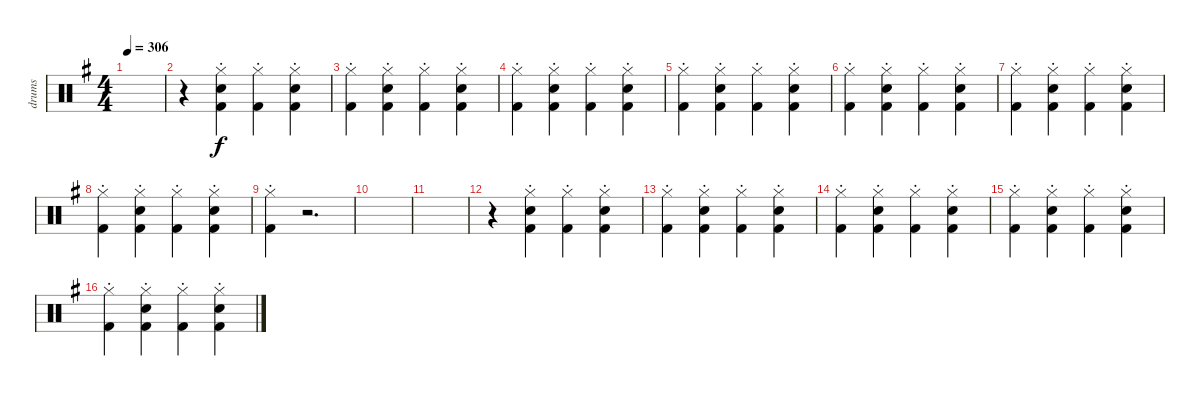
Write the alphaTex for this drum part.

\track ("drums" "drums") {instrument percussion}
\staff {score}
\articulation defaults
\ts (4 4)
\tempo 306
\clef neutral
\ks g
|
r.4 ("Hi-Hat (closed)"{st} "Electric Snare (hit)" "Kick (hit) 2").4 ("Hi-Hat (closed)"{st} "Kick (hit) 2").4 ("Hi-Hat (closed)"{st} "Electric Snare (hit)" "Kick (hit) 2").4 |
("Hi-Hat (closed)"{st} "Kick (hit) 2").4 ("Hi-Hat (closed)"{st} "Electric Snare (hit)" "Kick (hit) 2").4 ("Hi-Hat (closed)"{st} "Kick (hit) 2").4 ("Hi-Hat (closed)"{st} "Electric Snare (hit)" "Kick (hit) 2").4 |
("Hi-Hat (closed)"{st} "Kick (hit) 2").4 ("Hi-Hat (closed)"{st} "Electric Snare (hit)" "Kick (hit) 2").4 ("Hi-Hat (closed)"{st} "Kick (hit) 2").4 ("Hi-Hat (closed)"{st} "Electric Snare (hit)" "Kick (hit) 2").4 |
("Hi-Hat (closed)"{st} "Kick (hit) 2").4 ("Hi-Hat (closed)"{st} "Electric Snare (hit)" "Kick (hit) 2").4 ("Hi-Hat (closed)"{st} "Kick (hit) 2").4 ("Hi-Hat (closed)"{st} "Electric Snare (hit)" "Kick (hit) 2").4 |
("Hi-Hat (closed)"{st} "Kick (hit) 2").4 ("Hi-Hat (closed)"{st} "Electric Snare (hit)" "Kick (hit) 2").4 ("Hi-Hat (closed)"{st} "Kick (hit) 2").4 ("Hi-Hat (closed)"{st} "Electric Snare (hit)" "Kick (hit) 2").4 |
("Hi-Hat (closed)"{st} "Kick (hit) 2").4 ("Hi-Hat (closed)"{st} "Electric Snare (hit)" "Kick (hit) 2").4 ("Hi-Hat (closed)"{st} "Kick (hit) 2").4 ("Hi-Hat (closed)"{st} "Electric Snare (hit)" "Kick (hit) 2").4 |
("Hi-Hat (closed)"{st} "Kick (hit) 2").4 ("Hi-Hat (closed)"{st} "Electric Snare (hit)" "Kick (hit) 2").4 ("Hi-Hat (closed)"{st} "Kick (hit) 2").4 ("Hi-Hat (closed)"{st} "Electric Snare (hit)" "Kick (hit) 2").4 |
("Hi-Hat (closed)"{st} "Kick (hit) 2").4 r.2{d} |
|
|
r.4 ("Hi-Hat (closed)"{st} "Electric Snare (hit)" "Kick (hit) 2").4 ("Hi-Hat (closed)"{st} "Kick (hit) 2").4 ("Hi-Hat (closed)"{st} "Electric Snare (hit)" "Kick (hit) 2").4 |
("Hi-Hat (closed)"{st} "Kick (hit) 2").4 ("Hi-Hat (closed)"{st} "Electric Snare (hit)" "Kick (hit) 2").4 ("Hi-Hat (closed)"{st} "Kick (hit) 2").4 ("Hi-Hat (closed)"{st} "Electric Snare (hit)" "Kick (hit) 2").4 |
("Hi-Hat (closed)"{st} "Kick (hit) 2").4 ("Hi-Hat (closed)"{st} "Electric Snare (hit)" "Kick (hit) 2").4 ("Hi-Hat (closed)"{st} "Kick (hit) 2").4 ("Hi-Hat (closed)"{st} "Electric Snare (hit)" "Kick (hit) 2").4 |
("Hi-Hat (closed)"{st} "Kick (hit) 2").4 ("Hi-Hat (closed)"{st} "Electric Snare (hit)" "Kick (hit) 2").4 ("Hi-Hat (closed)"{st} "Kick (hit) 2").4 ("Hi-Hat (closed)"{st} "Electric Snare (hit)" "Kick (hit) 2").4 |
("Hi-Hat (closed)"{st} "Kick (hit) 2").4 ("Hi-Hat (closed)"{st} "Electric Snare (hit)" "Kick (hit) 2").4 ("Hi-Hat (closed)"{st} "Kick (hit) 2").4 ("Hi-Hat (closed)"{st} "Electric Snare (hit)" "Kick (hit) 2").4
